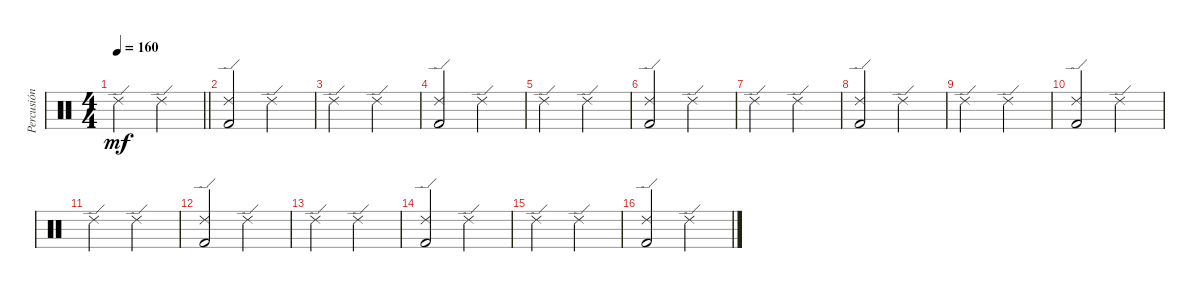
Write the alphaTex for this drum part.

\track ("Percusión" "Percusión") {instrument percussion}
\staff {score}
\articulation defaults
\ts (4 4)
\tempo 160
\clef neutral
\barLineRight lightlight
\ks c "Ride (edge) 2".2{dy mf} "Ride (edge) 2".2
|
("Ride (edge) 2" "Kick (hit) 2").2 "Ride (edge) 2".2 |
"Ride (edge) 2".2 "Ride (edge) 2".2 |
("Ride (edge) 2" "Kick (hit) 2").2 "Ride (edge) 2".2 |
"Ride (edge) 2".2 "Ride (edge) 2".2 |
("Ride (edge) 2" "Kick (hit) 2").2 "Ride (edge) 2".2 |
"Ride (edge) 2".2 "Ride (edge) 2".2 |
("Ride (edge) 2" "Kick (hit) 2").2 "Ride (edge) 2".2 |
"Ride (edge) 2".2 "Ride (edge) 2".2 |
("Ride (edge) 2" "Kick (hit) 2").2 "Ride (edge) 2".2 |
"Ride (edge) 2".2 "Ride (edge) 2".2 |
("Ride (edge) 2" "Kick (hit) 2").2 "Ride (edge) 2".2 |
"Ride (edge) 2".2 "Ride (edge) 2".2 |
("Ride (edge) 2" "Kick (hit) 2").2 "Ride (edge) 2".2 |
"Ride (edge) 2".2 "Ride (edge) 2".2 |
("Ride (edge) 2" "Kick (hit) 2").2 "Ride (edge) 2".2
